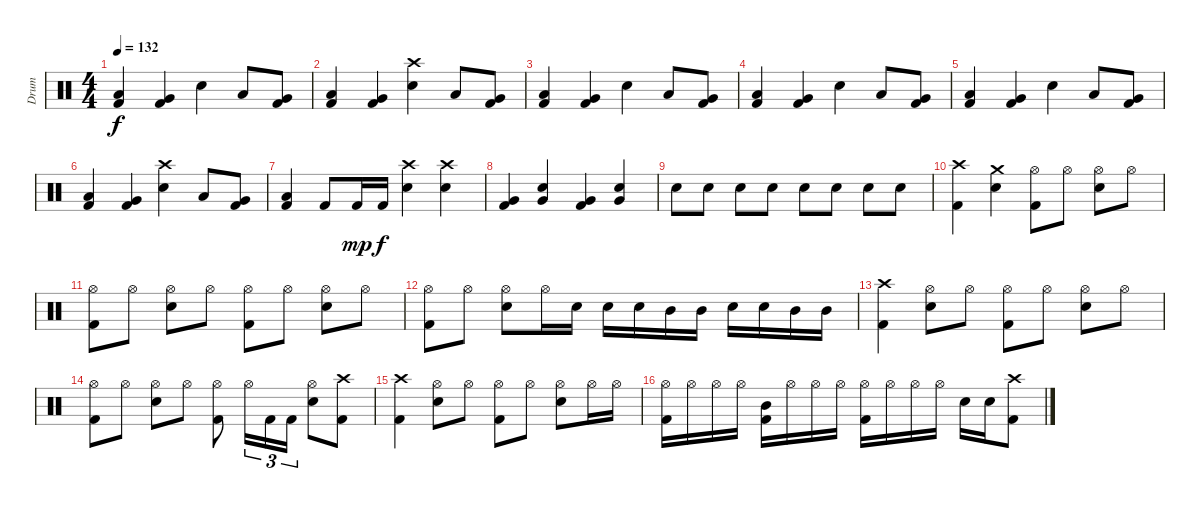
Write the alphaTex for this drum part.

\track ("Drum" "Drum") {instrument percussion}
\staff {score}
\articulation defaults
\ts (4 4)
\tempo 132
\clef neutral
\ks c
("Low Floor Tom (hit)" "Kick (hit) 2").4{dy f} ("Very Low Tom (hit)" "Kick (hit) 2").4 "Snare (hit) 2".4 "Low Tom (hit)".8 ("Very Low Tom (hit)" "Kick (hit) 2").8 |
("Low Floor Tom (hit)" "Kick (hit) 2").4 ("Very Low Tom (hit)" "Kick (hit) 2").4 ("Crash high (hit)" "Snare (hit) 2").4 "Low Tom (hit)".8 ("Very Low Tom (hit)" "Kick (hit) 2").8 |
("Low Floor Tom (hit)" "Kick (hit) 2").4 ("Very Low Tom (hit)" "Kick (hit) 2").4 "Snare (hit) 2".4 "Low Tom (hit)".8 ("Very Low Tom (hit)" "Kick (hit) 2").8 |
("Low Floor Tom (hit)" "Kick (hit) 2").4 ("Very Low Tom (hit)" "Kick (hit) 2").4 "Snare (hit) 2".4 "Low Tom (hit)".8 ("Very Low Tom (hit)" "Kick (hit) 2").8 |
("Low Floor Tom (hit)" "Kick (hit) 2").4 ("Very Low Tom (hit)" "Kick (hit) 2").4 "Snare (hit) 2".4 "Low Tom (hit)".8 ("Very Low Tom (hit)" "Kick (hit) 2").8 |
("Low Floor Tom (hit)" "Kick (hit) 2").4 ("Very Low Tom (hit)" "Kick (hit) 2").4 ("Crash high (hit)" "Snare (hit) 2").4 "Low Tom (hit)".8 ("Very Low Tom (hit)" "Kick (hit) 2").8 |
("Low Floor Tom (hit)" "Kick (hit) 2").4 "Kick (hit) 2".8 "Kick (hit) 2".16{dy mp} "Kick (hit) 2".16{dy f} ("Crash high (hit)" "Snare (hit) 2").4 ("Crash high (hit)" "Snare (hit) 2").4 |
("Very Low Tom (hit)" "Kick (hit) 2").4 ("Very Low Tom (hit)" "Snare (hit) 2").4 ("Very Low Tom (hit)" "Kick (hit) 2").4 ("Very Low Tom (hit)" "Snare (hit) 2").4 |
"Snare (hit) 2".8 "Snare (hit) 2".8 "Snare (hit) 2".8 "Snare (hit) 2".8 "Snare (hit) 2".8 "Snare (hit) 2".8 "Snare (hit) 2".8 "Snare (hit) 2".8 |
("Crash high (hit)" "Kick (hit) 2").4 ("Crash medium (hit)" "Snare (hit) 2").4 ("Hi-Hat (open)" "Kick (hit) 2").8 "Hi-Hat (open)".8 ("Hi-Hat (open)" "Snare (hit) 2").8 "Hi-Hat (open)".8 |
("Hi-Hat (open)" "Kick (hit) 2").8 "Hi-Hat (open)".8 ("Hi-Hat (open)" "Snare (hit) 2").8 "Hi-Hat (open)".8 ("Hi-Hat (open)" "Kick (hit) 2").8 "Hi-Hat (open)".8 ("Hi-Hat (open)" "Snare (hit) 2").8 "Hi-Hat (open)".8 |
("Hi-Hat (open)" "Kick (hit) 2").8 "Hi-Hat (open)".8 ("Hi-Hat (open)" "Snare (hit) 2").8 "Hi-Hat (open)".16 "Snare (hit) 2".16 "Snare (hit) 2".16 "Snare (hit) 2".16 "Mid Tom (hit)".16 "Mid Tom (hit)".16 "Snare (hit) 2".16 "Snare (hit) 2".16 "Mid Tom (hit)".16 "Mid Tom (hit)".16 |
("Crash high (hit)" "Kick (hit) 2").4 ("Hi-Hat (open)" "Snare (hit) 2").8 "Hi-Hat (open)".8 ("Hi-Hat (open)" "Kick (hit) 2").8 "Hi-Hat (open)".8 ("Hi-Hat (open)" "Snare (hit) 2").8 "Hi-Hat (open)".8 |
("Hi-Hat (open)" "Kick (hit) 2").8 "Hi-Hat (open)".8 ("Hi-Hat (open)" "Snare (hit) 2").8 "Hi-Hat (open)".8 ("Hi-Hat (open)" "Kick (hit) 2").8 "Hi-Hat (open)".16{tu (3 2)} "Kick (hit) 2".16{tu (3 2)} "Kick (hit) 2".16{tu (3 2)} ("Hi-Hat (open)" "Snare (hit) 2").8 ("Crash high (hit)" "Kick (hit) 2").8 |
("Crash high (hit)" "Kick (hit) 2").4 ("Hi-Hat (open)" "Snare (hit) 2").8 "Hi-Hat (open)".8 ("Hi-Hat (open)" "Kick (hit) 2").8 "Hi-Hat (open)".8 ("Hi-Hat (open)" "Snare (hit) 2").8 "Hi-Hat (open)".16 "Hi-Hat (open)".16 |
("Hi-Hat (open)" "Kick (hit) 2").16 "Hi-Hat (open)".16 "Hi-Hat (open)".16 "Hi-Hat (open)".16 ("Mid Tom (hit)" "Kick (hit) 2").16 "Hi-Hat (open)".16 "Hi-Hat (open)".16 "Hi-Hat (open)".16 ("Hi-Hat (open)" "Kick (hit) 2").16 "Hi-Hat (open)".16 "Hi-Hat (open)".16 "Hi-Hat (open)".16 "Snare (hit) 2".16 "Snare (hit) 2".16 ("Crash high (hit)" "Kick (hit) 2").8
